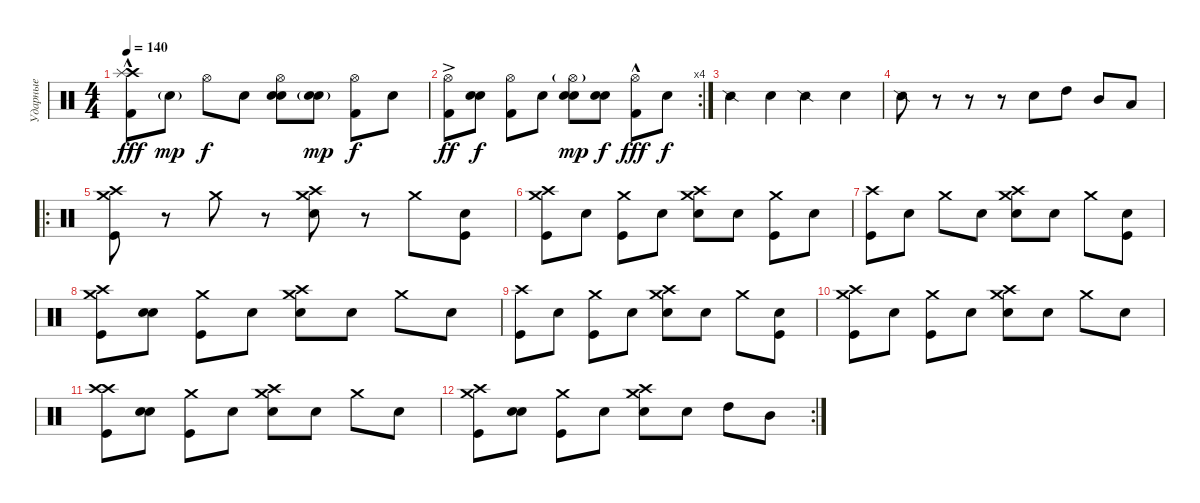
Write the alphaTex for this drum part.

\track ("Ударные" "Ударные") {instrument percussion}
\staff
\articulation defaults
\ts (4 4)
\tempo 140
\clef neutral
\ks c
("Crash high (hit)" "Splash (hit)" "Kick (hit) 2"{hac}).8{dy fff} "Electric Snare (hit)"{g}.8{dy mp} "Hi-Hat (open)".8{dy f} "Snare (hit)".8 ("Hi-Hat (open)" "Electric Snare (hit)" "Snare (hit)").8 ("Electric Snare (hit)"{g} "Snare (hit)").8{dy mp} ("Hi-Hat (open)" "Kick (hit) 2").8{dy f} "Snare (hit)".8 |
\rc 4
("Hi-Hat (open)" "Kick (hit) 2"{ac}).8{dy ff} ("Electric Snare (hit)" "Snare (hit)").8{dy f} ("Hi-Hat (open)" "Kick (hit) 2").8 "Snare (hit)".8 ("Hi-Hat (open)"{g} "Electric Snare (hit)" "Snare (hit)").8{dy mp} ("Electric Snare (hit)" "Snare (hit)").8{dy f} ("Hi-Hat (open)" "Kick (hit) 2"{hac}).8{dy fff} "Electric Snare (hit)".8{dy f} |
"Snare (side stick) 2".4 "Snare (hit)".4 "Snare (side stick) 2".4 "Snare (hit)".4 |
"Snare (side stick) 2".8 r.8 r.8 r.8 "Electric Snare (hit)".8 "High Tom (hit)".8 "Mid Tom (hit)".8 "Low Tom (hit)".8 |
\ro
("Crash medium (hit)" "Crash high (hit)" "Kick (hit)").8 r.8 "Crash medium (hit)".8 r.8 ("Crash high (hit)" "Crash medium (hit)" "Electric Snare (hit)").8 r.8 "Crash medium (hit)".8 ("Snare (hit)" "Kick (hit)").8 |
("Crash high (hit)" "Crash medium (hit)" "Kick (hit)").8 "Snare (hit)".8 ("Crash medium (hit)" "Kick (hit)").8 "Snare (hit)".8 ("Crash high (hit)" "Crash medium (hit)" "Electric Snare (hit)").8 "Snare (hit)".8 ("Crash medium (hit)" "Kick (hit)").8 "Snare (hit)".8 |
("Crash high (hit)" "Kick (hit)").8 "Snare (hit)".8 "Crash medium (hit)".8 "Snare (hit)".8 ("Crash high (hit)" "Crash medium (hit)" "Electric Snare (hit)").8 "Snare (hit)".8 "Crash medium (hit)".8 ("Snare (hit)" "Kick (hit)").8 |
("Crash high (hit)" "Crash medium (hit)" "Kick (hit)").8 ("Snare (hit)" "Electric Snare (hit)").8 ("Crash medium (hit)" "Kick (hit)").8 "Snare (hit)".8 ("Crash high (hit)" "Crash medium (hit)" "Electric Snare (hit)").8 "Snare (hit)".8 "Crash medium (hit)".8 "Snare (hit)".8 |
("Crash high (hit)" "Kick (hit)").8 "Snare (hit)".8 ("Crash medium (hit)" "Kick (hit)").8 "Snare (hit)".8 ("Crash high (hit)" "Crash medium (hit)" "Electric Snare (hit)").8 "Snare (hit)".8 "Crash medium (hit)".8 ("Snare (hit)" "Kick (hit)").8 |
("Crash high (hit)" "Crash medium (hit)" "Kick (hit)").8 "Snare (hit)".8 ("Crash medium (hit)" "Kick (hit)").8 "Snare (hit)".8 ("Crash high (hit)" "Crash medium (hit)" "Electric Snare (hit)").8 "Snare (hit)".8 "Crash medium (hit)".8 "Snare (hit)".8 |
("Crash high (hit)" "Crash high (hit)" "Kick (hit)").8 ("Snare (hit)" "Electric Snare (hit)").8 ("Crash medium (hit)" "Kick (hit)").8 "Snare (hit)".8 ("Crash high (hit)" "Crash medium (hit)" "Electric Snare (hit)").8 "Snare (hit)".8 "Crash medium (hit)".8 "Snare (hit)".8 |
\rc 2
("Crash high (hit)" "Crash medium (hit)" "Kick (hit)").8 ("Snare (hit)" "Electric Snare (hit)").8 ("Crash medium (hit)" "Kick (hit)").8 "Snare (hit)".8 ("Crash high (hit)" "Crash medium (hit)" "Electric Snare (hit)").8 "Electric Snare (hit)".8 "High Tom (hit)".8 "Mid Tom (hit)".8
